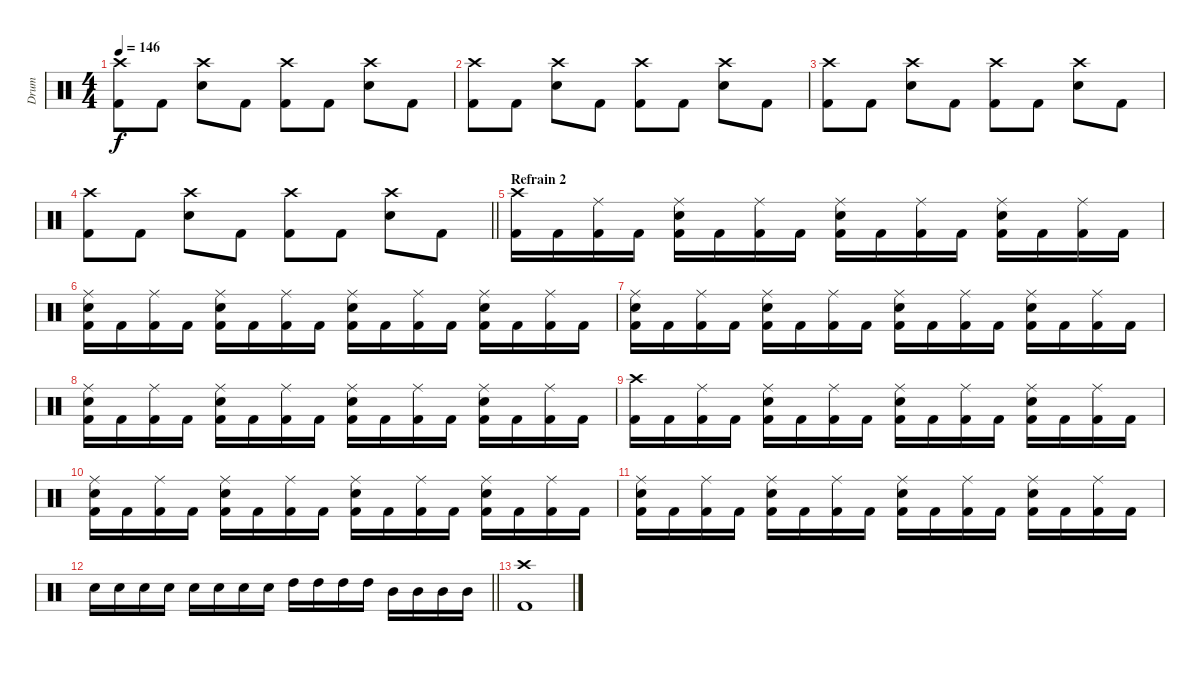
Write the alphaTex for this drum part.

\track ("Drum" "Drum") {instrument percussion}
\staff {score}
\articulation defaults
\ts (4 4)
\tempo 146
\clef neutral
\ks c
("Crash high (hit)" "Kick (hit) 2").8{dy f} "Kick (hit) 2".8 ("Crash high (hit)" "Electric Snare (hit)").8 "Kick (hit) 2".8 ("Crash high (hit)" "Kick (hit) 2").8 "Kick (hit) 2".8 ("Crash high (hit)" "Electric Snare (hit)").8 "Kick (hit) 2".8 |
("Crash high (hit)" "Kick (hit) 2").8 "Kick (hit) 2".8 ("Crash high (hit)" "Electric Snare (hit)").8 "Kick (hit) 2".8 ("Crash high (hit)" "Kick (hit) 2").8 "Kick (hit) 2".8 ("Crash high (hit)" "Electric Snare (hit)").8 "Kick (hit) 2".8 |
("Crash high (hit)" "Kick (hit) 2").8 "Kick (hit) 2".8 ("Crash high (hit)" "Electric Snare (hit)").8 "Kick (hit) 2".8 ("Crash high (hit)" "Kick (hit) 2").8 "Kick (hit) 2".8 ("Crash high (hit)" "Electric Snare (hit)").8 "Kick (hit) 2".8 |
\barLineRight lightlight
("Crash high (hit)" "Kick (hit) 2").8 "Kick (hit) 2".8 ("Crash high (hit)" "Electric Snare (hit)").8 "Kick (hit) 2".8 ("Crash high (hit)" "Kick (hit) 2").8 "Kick (hit) 2".8 ("Crash high (hit)" "Electric Snare (hit)").8 "Kick (hit) 2".8 |
\section ("" "Refrain 2")
("Crash high (hit)" "Kick (hit) 2").16 "Kick (hit) 2".16 ("Ride (middle)" "Kick (hit) 2").16 "Kick (hit) 2".16 ("Ride (middle)" "Electric Snare (hit)" "Kick (hit) 2").16 "Kick (hit) 2".16 ("Ride (middle)" "Kick (hit) 2").16 "Kick (hit) 2".16 ("Ride (middle)" "Electric Snare (hit)" "Kick (hit) 2").16 "Kick (hit) 2".16 ("Ride (middle)" "Kick (hit) 2").16 "Kick (hit) 2".16 ("Ride (middle)" "Electric Snare (hit)" "Kick (hit) 2").16 "Kick (hit) 2".16 ("Ride (middle)" "Kick (hit) 2").16 "Kick (hit) 2".16 |
("Ride (middle)" "Electric Snare (hit)" "Kick (hit) 2").16 "Kick (hit) 2".16 ("Ride (middle)" "Kick (hit) 2").16 "Kick (hit) 2".16 ("Ride (middle)" "Electric Snare (hit)" "Kick (hit) 2").16 "Kick (hit) 2".16 ("Ride (middle)" "Kick (hit) 2").16 "Kick (hit) 2".16 ("Ride (middle)" "Electric Snare (hit)" "Kick (hit) 2").16 "Kick (hit) 2".16 ("Ride (middle)" "Kick (hit) 2").16 "Kick (hit) 2".16 ("Ride (middle)" "Electric Snare (hit)" "Kick (hit) 2").16 "Kick (hit) 2".16 ("Ride (middle)" "Kick (hit) 2").16 "Kick (hit) 2".16 |
("Ride (middle)" "Electric Snare (hit)" "Kick (hit) 2").16 "Kick (hit) 2".16 ("Ride (middle)" "Kick (hit) 2").16 "Kick (hit) 2".16 ("Ride (middle)" "Electric Snare (hit)" "Kick (hit) 2").16 "Kick (hit) 2".16 ("Ride (middle)" "Kick (hit) 2").16 "Kick (hit) 2".16 ("Ride (middle)" "Electric Snare (hit)" "Kick (hit) 2").16 "Kick (hit) 2".16 ("Ride (middle)" "Kick (hit) 2").16 "Kick (hit) 2".16 ("Ride (middle)" "Electric Snare (hit)" "Kick (hit) 2").16 "Kick (hit) 2".16 ("Ride (middle)" "Kick (hit) 2").16 "Kick (hit) 2".16 |
("Ride (middle)" "Electric Snare (hit)" "Kick (hit) 2").16 "Kick (hit) 2".16 ("Ride (middle)" "Kick (hit) 2").16 "Kick (hit) 2".16 ("Ride (middle)" "Electric Snare (hit)" "Kick (hit) 2").16 "Kick (hit) 2".16 ("Ride (middle)" "Kick (hit) 2").16 "Kick (hit) 2".16 ("Ride (middle)" "Electric Snare (hit)" "Kick (hit) 2").16 "Kick (hit) 2".16 ("Ride (middle)" "Kick (hit) 2").16 "Kick (hit) 2".16 ("Ride (middle)" "Electric Snare (hit)" "Kick (hit) 2").16 "Kick (hit) 2".16 ("Ride (middle)" "Kick (hit) 2").16 "Kick (hit) 2".16 |
("Crash high (hit)" "Kick (hit) 2").16 "Kick (hit) 2".16 ("Ride (middle)" "Kick (hit) 2").16 "Kick (hit) 2".16 ("Ride (middle)" "Electric Snare (hit)" "Kick (hit) 2").16 "Kick (hit) 2".16 ("Ride (middle)" "Kick (hit) 2").16 "Kick (hit) 2".16 ("Ride (middle)" "Electric Snare (hit)" "Kick (hit) 2").16 "Kick (hit) 2".16 ("Ride (middle)" "Kick (hit) 2").16 "Kick (hit) 2".16 ("Ride (middle)" "Electric Snare (hit)" "Kick (hit) 2").16 "Kick (hit) 2".16 ("Ride (middle)" "Kick (hit) 2").16 "Kick (hit) 2".16 |
("Ride (middle)" "Electric Snare (hit)" "Kick (hit) 2").16 "Kick (hit) 2".16 ("Ride (middle)" "Kick (hit) 2").16 "Kick (hit) 2".16 ("Ride (middle)" "Electric Snare (hit)" "Kick (hit) 2").16 "Kick (hit) 2".16 ("Ride (middle)" "Kick (hit) 2").16 "Kick (hit) 2".16 ("Ride (middle)" "Electric Snare (hit)" "Kick (hit) 2").16 "Kick (hit) 2".16 ("Ride (middle)" "Kick (hit) 2").16 "Kick (hit) 2".16 ("Ride (middle)" "Electric Snare (hit)" "Kick (hit) 2").16 "Kick (hit) 2".16 ("Ride (middle)" "Kick (hit) 2").16 "Kick (hit) 2".16 |
("Ride (middle)" "Electric Snare (hit)" "Kick (hit) 2").16 "Kick (hit) 2".16 ("Ride (middle)" "Kick (hit) 2").16 "Kick (hit) 2".16 ("Ride (middle)" "Electric Snare (hit)" "Kick (hit) 2").16 "Kick (hit) 2".16 ("Ride (middle)" "Kick (hit) 2").16 "Kick (hit) 2".16 ("Ride (middle)" "Electric Snare (hit)" "Kick (hit) 2").16 "Kick (hit) 2".16 ("Ride (middle)" "Kick (hit) 2").16 "Kick (hit) 2".16 ("Ride (middle)" "Electric Snare (hit)" "Kick (hit) 2").16 "Kick (hit) 2".16 ("Ride (middle)" "Kick (hit) 2").16 "Kick (hit) 2".16 |
\barLineRight lightlight "Electric Snare (hit)".16 "Electric Snare (hit)".16 "Electric Snare (hit)".16 "Electric Snare (hit)".16 "Electric Snare (hit)".16 "Electric Snare (hit)".16 "Electric Snare (hit)".16 "Electric Snare (hit)".16 "High Tom (hit)".16 "High Tom (hit)".16 "High Tom (hit)".16 "High Tom (hit)".16 "Mid Tom (hit)".16 "Mid Tom (hit)".16 "Mid Tom (hit)".16 "Mid Tom (hit)".16
|
("Crash high (hit)" "Kick (hit) 2").1
